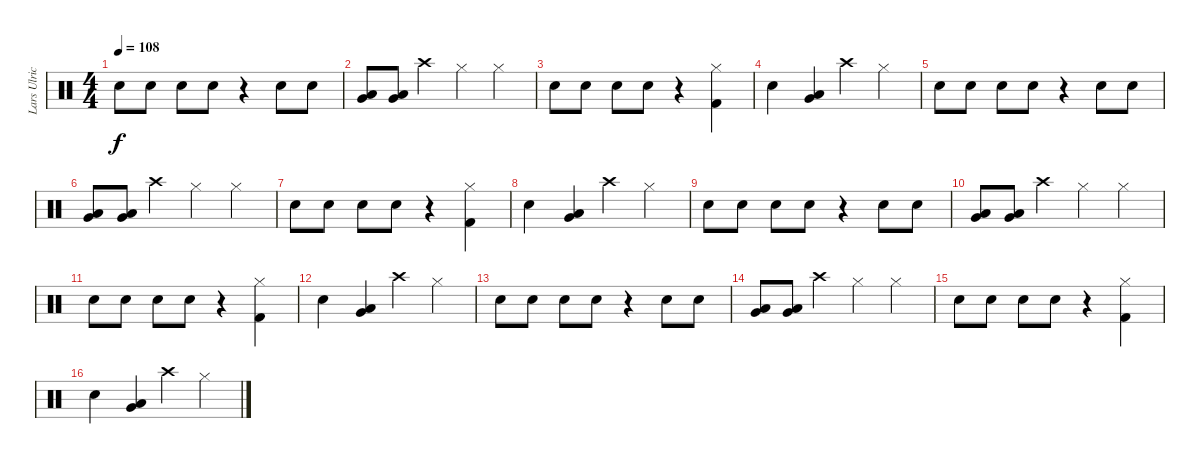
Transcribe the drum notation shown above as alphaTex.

\track ("Lars Ulrich" "Lars Ulric") {instrument percussion}
\staff {score}
\articulation defaults
\ts (4 4)
\tempo 108
\clef neutral
\ks c "Electric Snare (hit)".8{dy f} "Electric Snare (hit)".8 "Electric Snare (hit)".8 "Electric Snare (hit)".8
r.4 "Electric Snare (hit)".8 "Electric Snare (hit)".8 |
("Very Low Tom (hit)" "Low Floor Tom (hit)").8 ("Very Low Tom (hit)" "Low Floor Tom (hit)").8 "Crash high (hit)".4 "Hi-Hat (closed)".4 "Hi-Hat (closed)".4 |
"Electric Snare (hit)".8 "Electric Snare (hit)".8 "Electric Snare (hit)".8 "Electric Snare (hit)".8 r.4 ("Hi-Hat (closed)" "Kick (hit) 2").4 |
"Electric Snare (hit)".4 ("Low Floor Tom (hit)" "Very Low Tom (hit)").4 "Crash high (hit)".4 "Hi-Hat (closed)".4 |
"Electric Snare (hit)".8 "Electric Snare (hit)".8 "Electric Snare (hit)".8 "Electric Snare (hit)".8 r.4 "Electric Snare (hit)".8 "Electric Snare (hit)".8 |
("Very Low Tom (hit)" "Low Floor Tom (hit)").8 ("Very Low Tom (hit)" "Low Floor Tom (hit)").8 "Crash high (hit)".4 "Hi-Hat (closed)".4 "Hi-Hat (closed)".4 |
"Electric Snare (hit)".8 "Electric Snare (hit)".8 "Electric Snare (hit)".8 "Electric Snare (hit)".8 r.4 ("Hi-Hat (closed)" "Kick (hit) 2").4 |
"Electric Snare (hit)".4 ("Low Floor Tom (hit)" "Very Low Tom (hit)").4 "Crash high (hit)".4 "Hi-Hat (closed)".4 |
"Electric Snare (hit)".8 "Electric Snare (hit)".8 "Electric Snare (hit)".8 "Electric Snare (hit)".8 r.4 "Electric Snare (hit)".8 "Electric Snare (hit)".8 |
("Very Low Tom (hit)" "Low Floor Tom (hit)").8 ("Very Low Tom (hit)" "Low Floor Tom (hit)").8 "Crash high (hit)".4 "Hi-Hat (closed)".4 "Hi-Hat (closed)".4 |
"Electric Snare (hit)".8 "Electric Snare (hit)".8 "Electric Snare (hit)".8 "Electric Snare (hit)".8 r.4 ("Hi-Hat (closed)" "Kick (hit) 2").4 |
"Electric Snare (hit)".4 ("Low Floor Tom (hit)" "Very Low Tom (hit)").4 "Crash high (hit)".4 "Hi-Hat (closed)".4 |
"Electric Snare (hit)".8 "Electric Snare (hit)".8 "Electric Snare (hit)".8 "Electric Snare (hit)".8 r.4 "Electric Snare (hit)".8 "Electric Snare (hit)".8 |
("Very Low Tom (hit)" "Low Floor Tom (hit)").8 ("Very Low Tom (hit)" "Low Floor Tom (hit)").8 "Crash high (hit)".4 "Hi-Hat (closed)".4 "Hi-Hat (closed)".4 |
"Electric Snare (hit)".8 "Electric Snare (hit)".8 "Electric Snare (hit)".8 "Electric Snare (hit)".8 r.4 ("Hi-Hat (closed)" "Kick (hit) 2").4 |
"Electric Snare (hit)".4 ("Low Floor Tom (hit)" "Very Low Tom (hit)").4 "Crash high (hit)".4 "Hi-Hat (closed)".4
